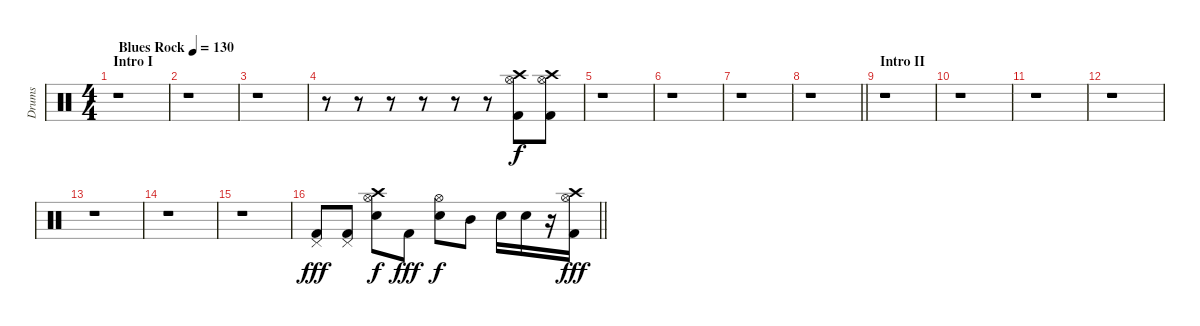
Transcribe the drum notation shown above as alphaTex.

\track ("Drums" "Drums") {instrument percussion}
\staff {score}
\articulation defaults
\ts (4 4)
\section ("" "Intro I")
\tempo (130 "Blues Rock")
\clef neutral
\ks c
r.1{dy f} |
r.1 |
r.1 |
r.8 r.8 r.8 r.8 r.8 r.8 ("Kick (hit) 2" "Hi-Hat (open)" "Crash high (hit)").8 ("Kick (hit) 2" "Hi-Hat (open)" "Crash high (hit)").8 |
r.1 |
r.1 |
r.1 |
\barLineRight lightlight
r.1 |
\section ("" "Intro II")
r.1 |
r.1 |
r.1 |
r.1 |
r.1 |
r.1 |
r.1 |
\barLineRight lightlight
("Kick (hit) 2" "Pedal Hi-Hat (hit)").8{dy fff} ("Kick (hit) 2" "Pedal Hi-Hat (hit)").8 ("Snare (hit) 2" "Crash high (hit)" "Hi-Hat (open)").8{dy f} "Kick (hit) 2".8{dy fff} ("Snare (hit) 2" "Hi-Hat (open)").8{dy f} "Mid Tom (hit)".8 "Snare (hit) 2".16 "Snare (hit) 2".16 r.16 ("Kick (hit) 2" "Crash high (hit)" "Hi-Hat (open)").16{dy fff}
